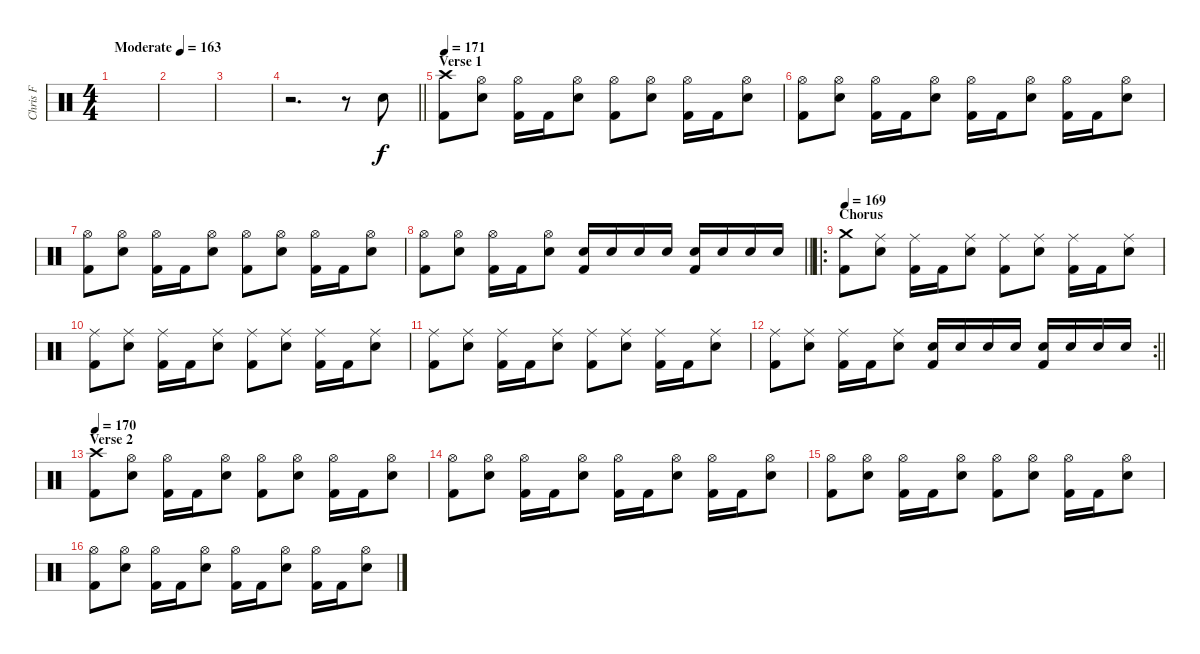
\track ("Chris F" "Chris F") {instrument percussion}
\staff {score}
\articulation defaults
\ts (4 4)
\tempo (163 "Moderate")
\clef neutral
\ks c
|
|
|
\barLineRight lightlight
r.2{d} r.8 "Electric Snare (hit)".8 |
\section ("" "Verse 1")
\tempo 171
("Crash high (hit)" "Kick (hit) 2").8 ("Hi-Hat (open)" "Electric Snare (hit)").8 ("Hi-Hat (open)" "Kick (hit) 2").16 "Kick (hit) 2".16 ("Hi-Hat (open)" "Electric Snare (hit)").8 ("Hi-Hat (open)" "Kick (hit) 2").8 ("Hi-Hat (open)" "Electric Snare (hit)").8 ("Hi-Hat (open)" "Kick (hit) 2").16 "Kick (hit) 2".16 ("Hi-Hat (open)" "Electric Snare (hit)").8 |
("Hi-Hat (open)" "Kick (hit) 2").8 ("Hi-Hat (open)" "Electric Snare (hit)").8 ("Hi-Hat (open)" "Kick (hit) 2").16 "Kick (hit) 2".16 ("Hi-Hat (open)" "Electric Snare (hit)").8 ("Hi-Hat (open)" "Kick (hit) 2").16 "Kick (hit) 2".16 ("Hi-Hat (open)" "Electric Snare (hit)").8 ("Hi-Hat (open)" "Kick (hit) 2").16 "Kick (hit) 2".16 ("Hi-Hat (open)" "Electric Snare (hit)").8 |
("Hi-Hat (open)" "Kick (hit) 2").8 ("Hi-Hat (open)" "Electric Snare (hit)").8 ("Hi-Hat (open)" "Kick (hit) 2").16 "Kick (hit) 2".16 ("Hi-Hat (open)" "Electric Snare (hit)").8 ("Hi-Hat (open)" "Kick (hit) 2").8 ("Hi-Hat (open)" "Electric Snare (hit)").8 ("Hi-Hat (open)" "Kick (hit) 2").16 "Kick (hit) 2".16 ("Hi-Hat (open)" "Electric Snare (hit)").8 |
\barLineRight lightlight
("Hi-Hat (open)" "Kick (hit) 2").8 ("Hi-Hat (open)" "Electric Snare (hit)").8 ("Hi-Hat (open)" "Kick (hit) 2").16 "Kick (hit) 2".16 ("Hi-Hat (open)" "Electric Snare (hit)").8 ("Electric Snare (hit)" "Kick (hit) 2").16 "Electric Snare (hit)".16 "Electric Snare (hit)".16 "Electric Snare (hit)".16 ("Electric Snare (hit)" "Kick (hit) 2").16 "Electric Snare (hit)".16 "Electric Snare (hit)".16 "Electric Snare (hit)".16 |
\ro
\section ("" "Chorus")
\tempo 169
("Crash medium (hit)" "Kick (hit) 2").8 ("Ride (middle)" "Electric Snare (hit)").8 ("Ride (middle)" "Kick (hit) 2").16 "Kick (hit) 2".16 ("Ride (middle)" "Electric Snare (hit)").8 ("Ride (middle)" "Kick (hit) 2").8 ("Ride (middle)" "Electric Snare (hit)").8 ("Ride (middle)" "Kick (hit) 2").16 "Kick (hit) 2".16 ("Ride (middle)" "Electric Snare (hit)").8 |
("Ride (middle)" "Kick (hit) 2").8 ("Ride (middle)" "Electric Snare (hit)").8 ("Ride (middle)" "Kick (hit) 2").16 "Kick (hit) 2".16 ("Ride (middle)" "Electric Snare (hit)").8 ("Ride (middle)" "Kick (hit) 2").8 ("Ride (middle)" "Electric Snare (hit)").8 ("Ride (middle)" "Kick (hit) 2").16 "Kick (hit) 2".16 ("Ride (middle)" "Electric Snare (hit)").8 |
("Ride (middle)" "Kick (hit) 2").8 ("Ride (middle)" "Electric Snare (hit)").8 ("Ride (middle)" "Kick (hit) 2").16 "Kick (hit) 2".16 ("Ride (middle)" "Electric Snare (hit)").8 ("Ride (middle)" "Kick (hit) 2").8 ("Ride (middle)" "Electric Snare (hit)").8 ("Ride (middle)" "Kick (hit) 2").16 "Kick (hit) 2".16 ("Ride (middle)" "Electric Snare (hit)").8 |
\rc 2
\barLineRight lightlight
("Ride (middle)" "Kick (hit) 2").8 ("Ride (middle)" "Electric Snare (hit)").8 ("Ride (middle)" "Kick (hit) 2").16 "Kick (hit) 2".16 ("Ride (middle)" "Electric Snare (hit)").8 ("Electric Snare (hit)" "Kick (hit) 2").16 "Electric Snare (hit)".16 "Electric Snare (hit)".16 "Electric Snare (hit)".16 ("Electric Snare (hit)" "Kick (hit) 2").16 "Electric Snare (hit)".16 "Electric Snare (hit)".16 "Electric Snare (hit)".16 |
\section ("" "Verse 2")
\tempo 170
("Crash high (hit)" "Kick (hit) 2").8 ("Hi-Hat (open)" "Electric Snare (hit)").8 ("Hi-Hat (open)" "Kick (hit) 2").16 "Kick (hit) 2".16 ("Hi-Hat (open)" "Electric Snare (hit)").8 ("Hi-Hat (open)" "Kick (hit) 2").8 ("Hi-Hat (open)" "Electric Snare (hit)").8 ("Hi-Hat (open)" "Kick (hit) 2").16 "Kick (hit) 2".16 ("Hi-Hat (open)" "Electric Snare (hit)").8 |
("Hi-Hat (open)" "Kick (hit) 2").8 ("Hi-Hat (open)" "Electric Snare (hit)").8 ("Hi-Hat (open)" "Kick (hit) 2").16 "Kick (hit) 2".16 ("Hi-Hat (open)" "Electric Snare (hit)").8 ("Hi-Hat (open)" "Kick (hit) 2").16 "Kick (hit) 2".16 ("Hi-Hat (open)" "Electric Snare (hit)").8 ("Hi-Hat (open)" "Kick (hit) 2").16 "Kick (hit) 2".16 ("Hi-Hat (open)" "Electric Snare (hit)").8 |
("Hi-Hat (open)" "Kick (hit) 2").8 ("Hi-Hat (open)" "Electric Snare (hit)").8 ("Hi-Hat (open)" "Kick (hit) 2").16 "Kick (hit) 2".16 ("Hi-Hat (open)" "Electric Snare (hit)").8 ("Hi-Hat (open)" "Kick (hit) 2").8 ("Hi-Hat (open)" "Electric Snare (hit)").8 ("Hi-Hat (open)" "Kick (hit) 2").16 "Kick (hit) 2".16 ("Hi-Hat (open)" "Electric Snare (hit)").8 |
("Hi-Hat (open)" "Kick (hit) 2").8 ("Hi-Hat (open)" "Electric Snare (hit)").8 ("Hi-Hat (open)" "Kick (hit) 2").16 "Kick (hit) 2".16 ("Hi-Hat (open)" "Electric Snare (hit)").8 ("Hi-Hat (open)" "Kick (hit) 2").16 "Kick (hit) 2".16 ("Hi-Hat (open)" "Electric Snare (hit)").8 ("Hi-Hat (open)" "Kick (hit) 2").16 "Kick (hit) 2".16 ("Hi-Hat (open)" "Electric Snare (hit)").8
